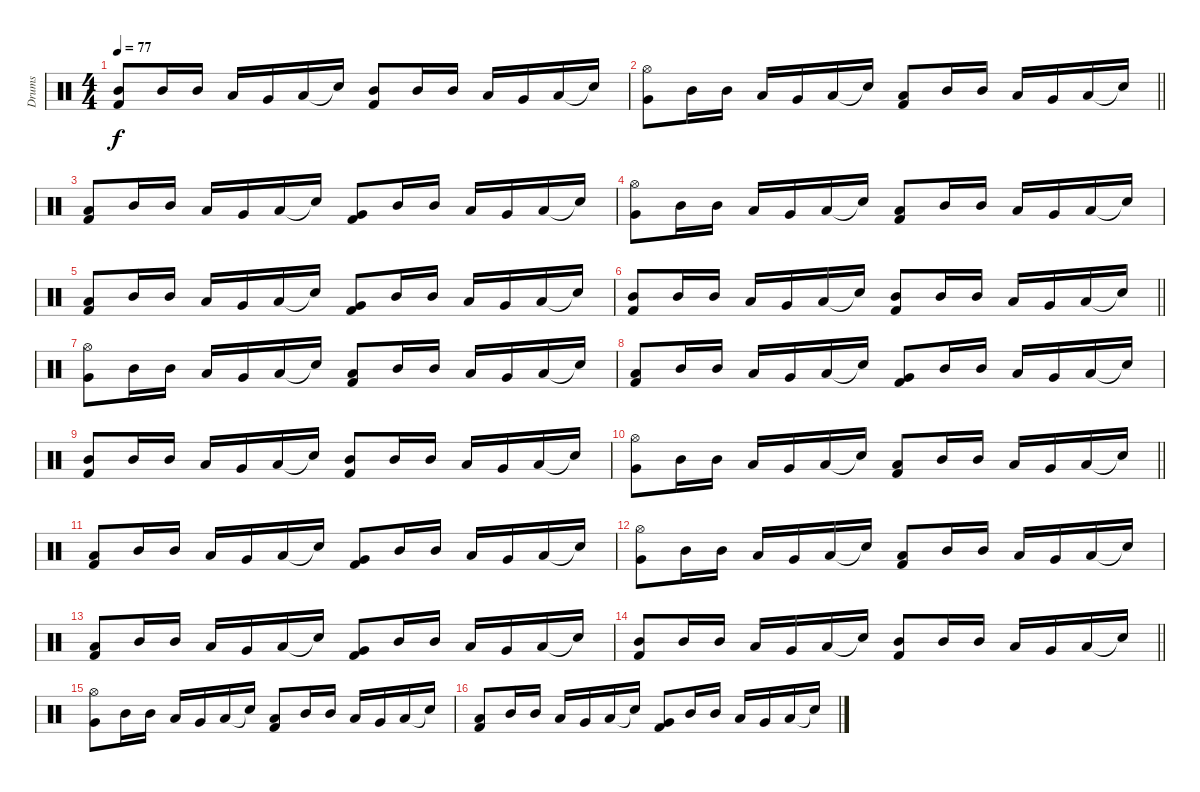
\track ("Drums" "Drums") {instrument percussion}
\staff {score}
\articulation defaults
\ts (4 4)
\tempo 77
\clef neutral
\ks c
("Mid Tom (hit)" "Kick (hit) 2").8{dy f} "Mid Tom (hit)".16 "Mid Tom (hit)".16 "Low Tom (hit)".16 "Very Low Tom (hit)".16 "Low Floor Tom (hit)".16 "Snare (hit)"{t}.16 ("Mid Tom (hit)" "Kick (hit) 2").8 "Mid Tom (hit)".16 "Mid Tom (hit)".16 "Low Tom (hit)".16 "Very Low Tom (hit)".16 "Low Floor Tom (hit)".16 "Snare (hit)"{t}.16 |
\barLineRight lightlight
("Very Low Tom (hit)" "Hi-Hat (open)").8 "Mid Tom (hit)".16 "Mid Tom (hit)".16 "Low Tom (hit)".16 "Very Low Tom (hit)".16 "Low Floor Tom (hit)".16 "Snare (hit)"{t}.16 ("Low Floor Tom (hit)" "Kick (hit) 2").8 "Mid Tom (hit)".16 "Mid Tom (hit)".16 "Low Tom (hit)".16 "Very Low Tom (hit)".16 "Low Floor Tom (hit)".16 "Snare (hit)"{t}.16 |
("Low Floor Tom (hit)" "Kick (hit) 2").8 "Mid Tom (hit)".16 "Mid Tom (hit)".16 "Low Tom (hit)".16 "Very Low Tom (hit)".16 "Low Floor Tom (hit)".16 "Snare (hit)"{t}.16 ("Very Low Tom (hit)" "Kick (hit) 2").8 "Mid Tom (hit)".16 "Mid Tom (hit)".16 "Low Tom (hit)".16 "Very Low Tom (hit)".16 "Low Floor Tom (hit)".16 "Snare (hit)"{t}.16 |
("Very Low Tom (hit)" "Hi-Hat (open)").8 "Mid Tom (hit)".16 "Mid Tom (hit)".16 "Low Tom (hit)".16 "Very Low Tom (hit)".16 "Low Floor Tom (hit)".16 "Snare (hit)"{t}.16 ("Low Floor Tom (hit)" "Kick (hit) 2").8 "Mid Tom (hit)".16 "Mid Tom (hit)".16 "Low Tom (hit)".16 "Very Low Tom (hit)".16 "Low Floor Tom (hit)".16 "Snare (hit)"{t}.16 |
("Low Floor Tom (hit)" "Kick (hit) 2").8 "Mid Tom (hit)".16 "Mid Tom (hit)".16 "Low Tom (hit)".16 "Very Low Tom (hit)".16 "Low Floor Tom (hit)".16 "Snare (hit)"{t}.16 ("Very Low Tom (hit)" "Kick (hit) 2").8 "Mid Tom (hit)".16 "Mid Tom (hit)".16 "Low Tom (hit)".16 "Very Low Tom (hit)".16 "Low Floor Tom (hit)".16 "Snare (hit)"{t}.16 |
\barLineRight lightlight
("Mid Tom (hit)" "Kick (hit) 2").8 "Mid Tom (hit)".16 "Mid Tom (hit)".16 "Low Tom (hit)".16 "Very Low Tom (hit)".16 "Low Floor Tom (hit)".16 "Snare (hit)"{t}.16 ("Mid Tom (hit)" "Kick (hit) 2").8 "Mid Tom (hit)".16 "Mid Tom (hit)".16 "Low Tom (hit)".16 "Very Low Tom (hit)".16 "Low Floor Tom (hit)".16 "Snare (hit)"{t}.16 |
("Very Low Tom (hit)" "Hi-Hat (open)").8 "Mid Tom (hit)".16 "Mid Tom (hit)".16 "Low Tom (hit)".16 "Very Low Tom (hit)".16 "Low Floor Tom (hit)".16 "Snare (hit)"{t}.16 ("Low Floor Tom (hit)" "Kick (hit) 2").8 "Mid Tom (hit)".16 "Mid Tom (hit)".16 "Low Tom (hit)".16 "Very Low Tom (hit)".16 "Low Floor Tom (hit)".16 "Snare (hit)"{t}.16 |
("Low Floor Tom (hit)" "Kick (hit) 2").8 "Mid Tom (hit)".16 "Mid Tom (hit)".16 "Low Tom (hit)".16 "Very Low Tom (hit)".16 "Low Floor Tom (hit)".16 "Snare (hit)"{t}.16 ("Very Low Tom (hit)" "Kick (hit) 2").8 "Mid Tom (hit)".16 "Mid Tom (hit)".16 "Low Tom (hit)".16 "Very Low Tom (hit)".16 "Low Floor Tom (hit)".16 "Snare (hit)"{t}.16 |
("Mid Tom (hit)" "Kick (hit) 2").8 "Mid Tom (hit)".16 "Mid Tom (hit)".16 "Low Tom (hit)".16 "Very Low Tom (hit)".16 "Low Floor Tom (hit)".16 "Snare (hit)"{t}.16 ("Mid Tom (hit)" "Kick (hit) 2").8 "Mid Tom (hit)".16 "Mid Tom (hit)".16 "Low Tom (hit)".16 "Very Low Tom (hit)".16 "Low Floor Tom (hit)".16 "Snare (hit)"{t}.16 |
\barLineRight lightlight
("Very Low Tom (hit)" "Hi-Hat (open)").8 "Mid Tom (hit)".16 "Mid Tom (hit)".16 "Low Tom (hit)".16 "Very Low Tom (hit)".16 "Low Floor Tom (hit)".16 "Snare (hit)"{t}.16 ("Low Floor Tom (hit)" "Kick (hit) 2").8 "Mid Tom (hit)".16 "Mid Tom (hit)".16 "Low Tom (hit)".16 "Very Low Tom (hit)".16 "Low Floor Tom (hit)".16 "Snare (hit)"{t}.16 |
("Low Floor Tom (hit)" "Kick (hit) 2").8 "Mid Tom (hit)".16 "Mid Tom (hit)".16 "Low Tom (hit)".16 "Very Low Tom (hit)".16 "Low Floor Tom (hit)".16 "Snare (hit)"{t}.16 ("Very Low Tom (hit)" "Kick (hit) 2").8 "Mid Tom (hit)".16 "Mid Tom (hit)".16 "Low Tom (hit)".16 "Very Low Tom (hit)".16 "Low Floor Tom (hit)".16 "Snare (hit)"{t}.16 |
("Very Low Tom (hit)" "Hi-Hat (open)").8 "Mid Tom (hit)".16 "Mid Tom (hit)".16 "Low Tom (hit)".16 "Very Low Tom (hit)".16 "Low Floor Tom (hit)".16 "Snare (hit)"{t}.16 ("Low Floor Tom (hit)" "Kick (hit) 2").8 "Mid Tom (hit)".16 "Mid Tom (hit)".16 "Low Tom (hit)".16 "Very Low Tom (hit)".16 "Low Floor Tom (hit)".16 "Snare (hit)"{t}.16 |
("Low Floor Tom (hit)" "Kick (hit) 2").8 "Mid Tom (hit)".16 "Mid Tom (hit)".16 "Low Tom (hit)".16 "Very Low Tom (hit)".16 "Low Floor Tom (hit)".16 "Snare (hit)"{t}.16 ("Very Low Tom (hit)" "Kick (hit) 2").8 "Mid Tom (hit)".16 "Mid Tom (hit)".16 "Low Tom (hit)".16 "Very Low Tom (hit)".16 "Low Floor Tom (hit)".16 "Snare (hit)"{t}.16 |
\barLineRight lightlight
("Mid Tom (hit)" "Kick (hit) 2").8 "Mid Tom (hit)".16 "Mid Tom (hit)".16 "Low Tom (hit)".16 "Very Low Tom (hit)".16 "Low Floor Tom (hit)".16 "Snare (hit)"{t}.16 ("Mid Tom (hit)" "Kick (hit) 2").8 "Mid Tom (hit)".16 "Mid Tom (hit)".16 "Low Tom (hit)".16 "Very Low Tom (hit)".16 "Low Floor Tom (hit)".16 "Snare (hit)"{t}.16 |
("Very Low Tom (hit)" "Hi-Hat (open)").8 "Mid Tom (hit)".16 "Mid Tom (hit)".16 "Low Tom (hit)".16 "Very Low Tom (hit)".16 "Low Floor Tom (hit)".16 "Snare (hit)"{t}.16 ("Low Floor Tom (hit)" "Kick (hit) 2").8 "Mid Tom (hit)".16 "Mid Tom (hit)".16 "Low Tom (hit)".16 "Very Low Tom (hit)".16 "Low Floor Tom (hit)".16 "Snare (hit)"{t}.16 |
("Low Floor Tom (hit)" "Kick (hit) 2").8 "Mid Tom (hit)".16 "Mid Tom (hit)".16 "Low Tom (hit)".16 "Very Low Tom (hit)".16 "Low Floor Tom (hit)".16 "Snare (hit)"{t}.16 ("Very Low Tom (hit)" "Kick (hit) 2").8 "Mid Tom (hit)".16 "Mid Tom (hit)".16 "Low Tom (hit)".16 "Very Low Tom (hit)".16 "Low Floor Tom (hit)".16 "Snare (hit)"{t}.16
